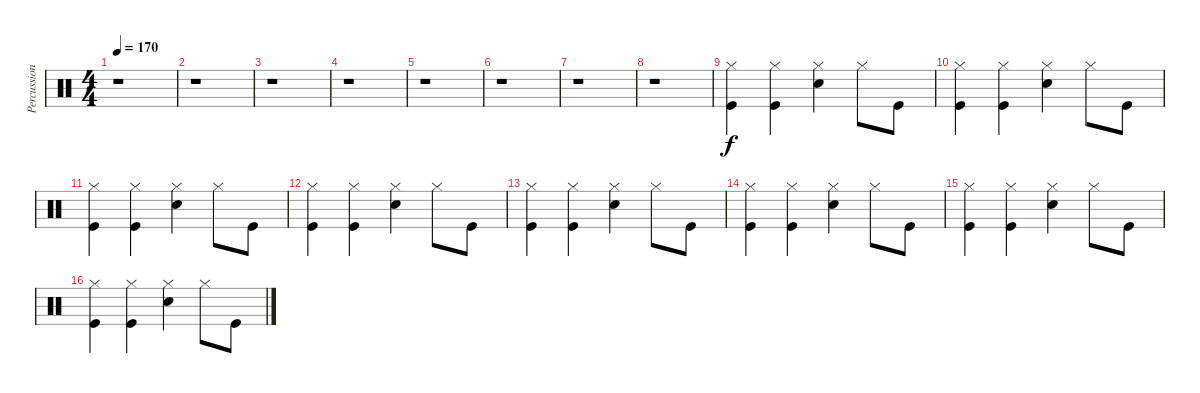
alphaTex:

\track ("Percussion" "Percussion") {instrument percussion}
\staff {score}
\articulation defaults
\ts (4 4)
\tempo 170
\clef neutral
\ks c
r.1{dy f} |
r.1 |
r.1 |
r.1 |
r.1 |
r.1 |
r.1 |
r.1 |
("Hi-Hat (closed)" "Kick (hit)").4 ("Hi-Hat (closed)" "Kick (hit)").4 ("Hi-Hat (closed)" "Snare (hit) 2").4 "Hi-Hat (closed)".8 "Kick (hit)".8 |
("Hi-Hat (closed)" "Kick (hit)").4 ("Hi-Hat (closed)" "Kick (hit)").4 ("Hi-Hat (closed)" "Snare (hit) 2").4 "Hi-Hat (closed)".8 "Kick (hit)".8 |
("Hi-Hat (closed)" "Kick (hit)").4 ("Hi-Hat (closed)" "Kick (hit)").4 ("Hi-Hat (closed)" "Snare (hit) 2").4 "Hi-Hat (closed)".8 "Kick (hit)".8 |
("Hi-Hat (closed)" "Kick (hit)").4 ("Hi-Hat (closed)" "Kick (hit)").4 ("Hi-Hat (closed)" "Snare (hit) 2").4 "Hi-Hat (closed)".8 "Kick (hit)".8 |
("Hi-Hat (closed)" "Kick (hit)").4 ("Hi-Hat (closed)" "Kick (hit)").4 ("Hi-Hat (closed)" "Snare (hit) 2").4 "Hi-Hat (closed)".8 "Kick (hit)".8 |
("Hi-Hat (closed)" "Kick (hit)").4 ("Hi-Hat (closed)" "Kick (hit)").4 ("Hi-Hat (closed)" "Snare (hit) 2").4 "Hi-Hat (closed)".8 "Kick (hit)".8 |
("Hi-Hat (closed)" "Kick (hit)").4 ("Hi-Hat (closed)" "Kick (hit)").4 ("Hi-Hat (closed)" "Snare (hit) 2").4 "Hi-Hat (closed)".8 "Kick (hit)".8 |
("Hi-Hat (closed)" "Kick (hit)").4 ("Hi-Hat (closed)" "Kick (hit)").4 ("Hi-Hat (closed)" "Snare (hit) 2").4 "Hi-Hat (closed)".8 "Kick (hit)".8
